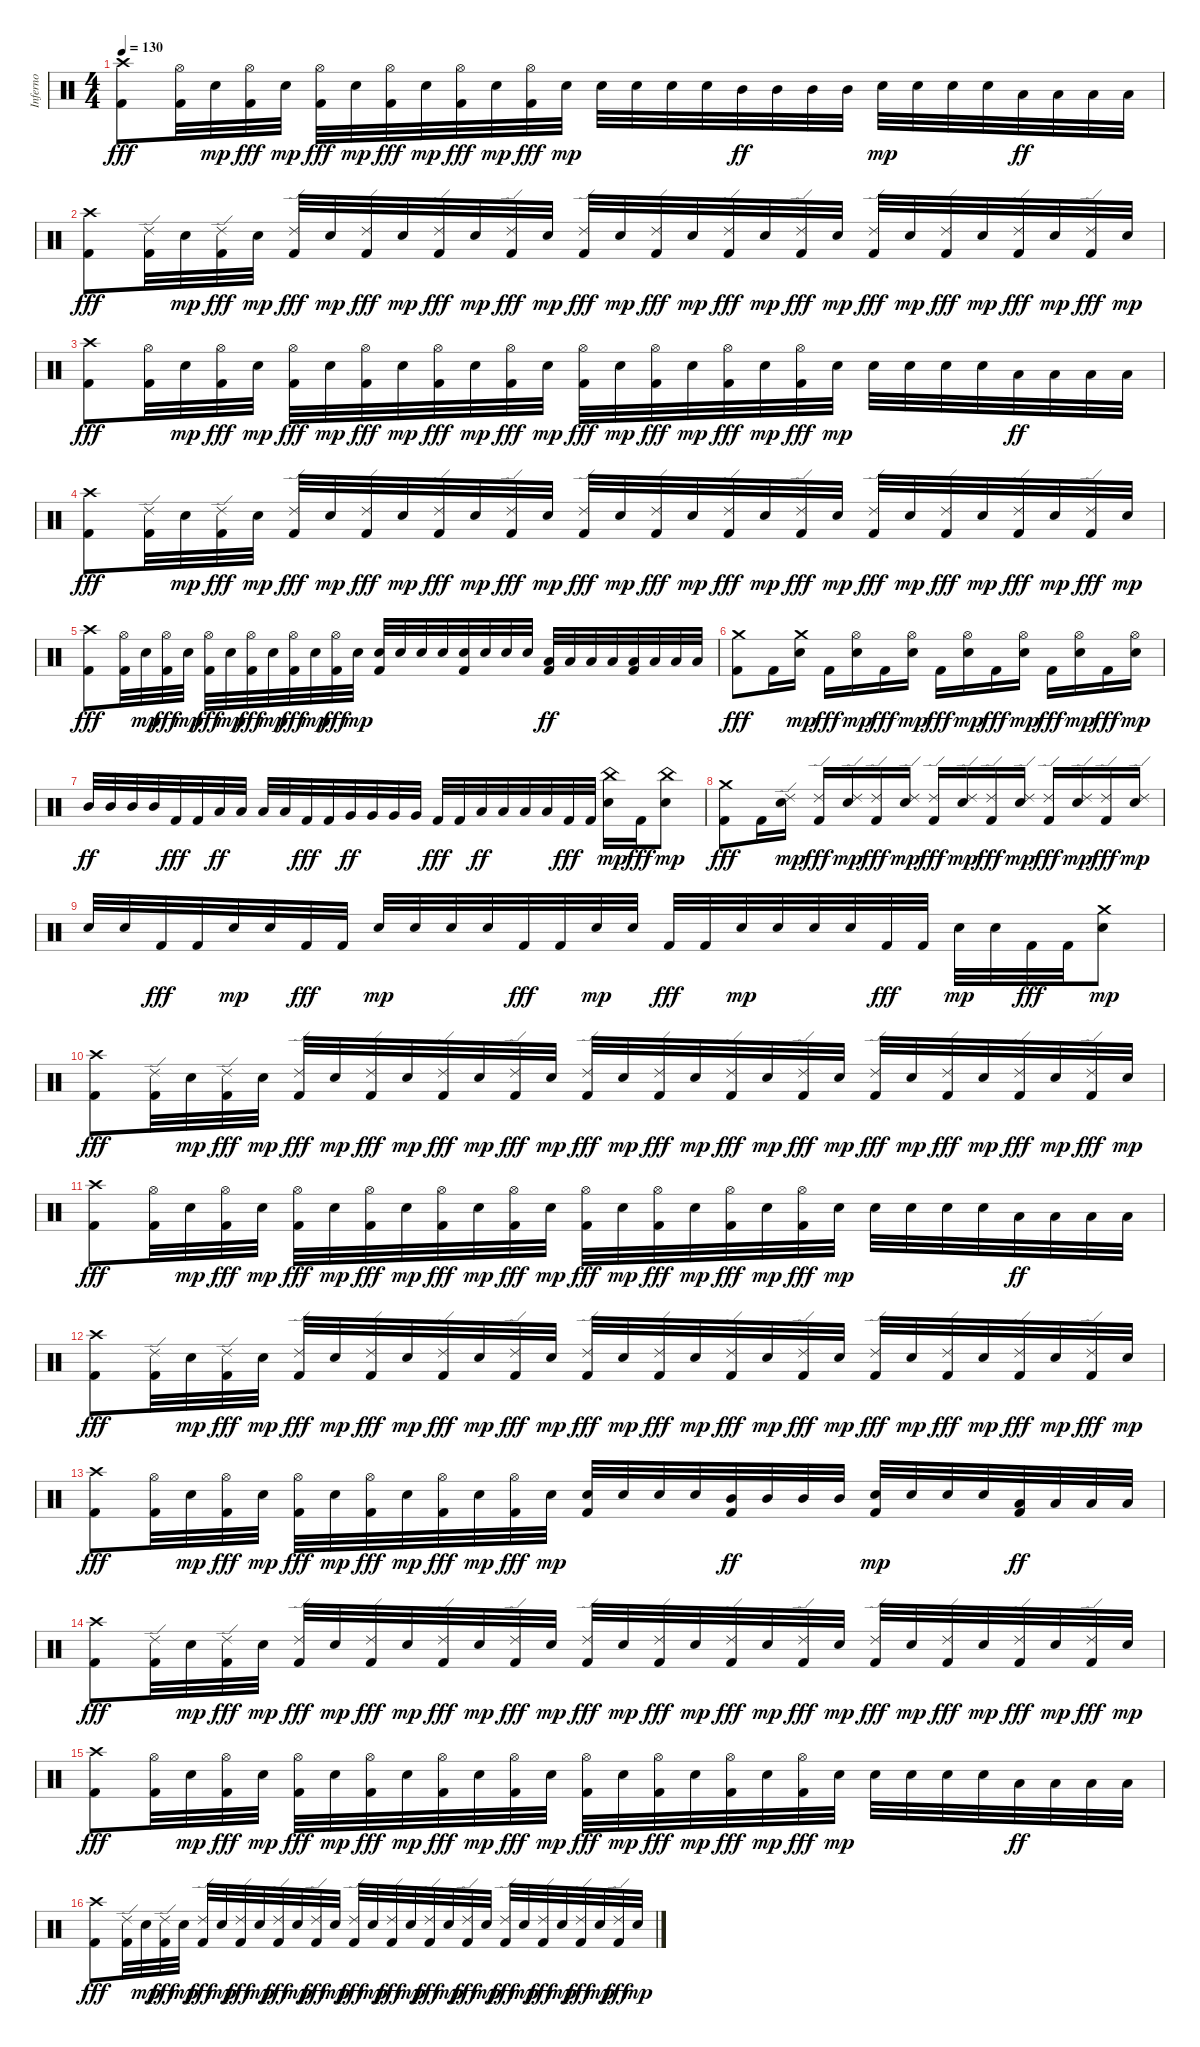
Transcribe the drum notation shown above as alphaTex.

\track ("Inferno" "Inferno") {instrument percussion}
\staff {score}
\articulation defaults
\ts (4 4)
\tempo 130
\clef neutral
\ks c
("Kick (hit) 2" "Crash high (hit)").8{dy fff} ("Kick (hit) 2" "Hi-Hat (open)").32 "Electric Snare (hit)".32{dy mp} ("Kick (hit) 2" "Hi-Hat (open)").32{dy fff} "Electric Snare (hit)".32{dy mp} ("Kick (hit) 2" "Hi-Hat (open)").32{dy fff} "Electric Snare (hit)".32{dy mp} ("Kick (hit) 2" "Hi-Hat (open)").32{dy fff} "Electric Snare (hit)".32{dy mp} ("Kick (hit) 2" "Hi-Hat (open)").32{dy fff} "Electric Snare (hit)".32{dy mp} ("Kick (hit) 2" "Hi-Hat (open)").32{dy fff} "Electric Snare (hit)".32{dy mp} "Electric Snare (hit)".32 "Electric Snare (hit)".32 "Electric Snare (hit)".32 "Electric Snare (hit)".32 "Mid Tom (hit)".32{dy ff} "Mid Tom (hit)".32 "Mid Tom (hit)".32 "Mid Tom (hit)".32 "Electric Snare (hit)".32{dy mp} "Electric Snare (hit)".32 "Electric Snare (hit)".32 "Electric Snare (hit)".32 "Low Tom (hit)".32{dy ff} "Low Tom (hit)".32 "Low Tom (hit)".32 "Low Tom (hit)".32 |
("Kick (hit) 2" "Crash high (hit)").8{dy fff} ("Kick (hit) 2" "Ride (edge) 2").32 "Electric Snare (hit)".32{dy mp} ("Kick (hit) 2" "Ride (edge) 2").32{dy fff} "Electric Snare (hit)".32{dy mp} ("Kick (hit) 2" "Ride (edge) 2").32{dy fff} "Electric Snare (hit)".32{dy mp} ("Kick (hit) 2" "Ride (edge) 2").32{dy fff} "Electric Snare (hit)".32{dy mp} ("Kick (hit) 2" "Ride (edge) 2").32{dy fff} "Electric Snare (hit)".32{dy mp} ("Kick (hit) 2" "Ride (edge) 2").32{dy fff} "Electric Snare (hit)".32{dy mp} ("Kick (hit) 2" "Ride (edge) 2").32{dy fff} "Electric Snare (hit)".32{dy mp} ("Kick (hit) 2" "Ride (edge) 2").32{dy fff} "Electric Snare (hit)".32{dy mp} ("Kick (hit) 2" "Ride (edge) 2").32{dy fff} "Electric Snare (hit)".32{dy mp} ("Kick (hit) 2" "Ride (edge) 2").32{dy fff} "Electric Snare (hit)".32{dy mp} ("Kick (hit) 2" "Ride (edge) 2").32{dy fff} "Electric Snare (hit)".32{dy mp} ("Kick (hit) 2" "Ride (edge) 2").32{dy fff} "Electric Snare (hit)".32{dy mp} ("Kick (hit) 2" "Ride (edge) 2").32{dy fff} "Electric Snare (hit)".32{dy mp} ("Kick (hit) 2" "Ride (edge) 2").32{dy fff} "Electric Snare (hit)".32{dy mp} |
("Kick (hit) 2" "Crash high (hit)").8{dy fff} ("Kick (hit) 2" "Hi-Hat (open)").32 "Electric Snare (hit)".32{dy mp} ("Kick (hit) 2" "Hi-Hat (open)").32{dy fff} "Electric Snare (hit)".32{dy mp} ("Kick (hit) 2" "Hi-Hat (open)").32{dy fff} "Electric Snare (hit)".32{dy mp} ("Kick (hit) 2" "Hi-Hat (open)").32{dy fff} "Electric Snare (hit)".32{dy mp} ("Kick (hit) 2" "Hi-Hat (open)").32{dy fff} "Electric Snare (hit)".32{dy mp} ("Kick (hit) 2" "Hi-Hat (open)").32{dy fff} "Electric Snare (hit)".32{dy mp} ("Kick (hit) 2" "Hi-Hat (open)").32{dy fff} "Electric Snare (hit)".32{dy mp} ("Kick (hit) 2" "Hi-Hat (open)").32{dy fff} "Electric Snare (hit)".32{dy mp} ("Kick (hit) 2" "Hi-Hat (open)").32{dy fff} "Electric Snare (hit)".32{dy mp} ("Kick (hit) 2" "Hi-Hat (open)").32{dy fff} "Electric Snare (hit)".32{dy mp} "Electric Snare (hit)".32 "Electric Snare (hit)".32 "Electric Snare (hit)".32 "Electric Snare (hit)".32 "Low Tom (hit)".32{dy ff} "Low Tom (hit)".32 "Low Tom (hit)".32 "Low Tom (hit)".32 |
("Kick (hit) 2" "Crash high (hit)").8{dy fff} ("Kick (hit) 2" "Ride (edge) 2").32 "Electric Snare (hit)".32{dy mp} ("Kick (hit) 2" "Ride (edge) 2").32{dy fff} "Electric Snare (hit)".32{dy mp} ("Kick (hit) 2" "Ride (edge) 2").32{dy fff} "Electric Snare (hit)".32{dy mp} ("Kick (hit) 2" "Ride (edge) 2").32{dy fff} "Electric Snare (hit)".32{dy mp} ("Kick (hit) 2" "Ride (edge) 2").32{dy fff} "Electric Snare (hit)".32{dy mp} ("Kick (hit) 2" "Ride (edge) 2").32{dy fff} "Electric Snare (hit)".32{dy mp} ("Kick (hit) 2" "Ride (edge) 2").32{dy fff} "Electric Snare (hit)".32{dy mp} ("Kick (hit) 2" "Ride (edge) 2").32{dy fff} "Electric Snare (hit)".32{dy mp} ("Kick (hit) 2" "Ride (edge) 2").32{dy fff} "Electric Snare (hit)".32{dy mp} ("Kick (hit) 2" "Ride (edge) 2").32{dy fff} "Electric Snare (hit)".32{dy mp} ("Kick (hit) 2" "Ride (edge) 2").32{dy fff} "Electric Snare (hit)".32{dy mp} ("Kick (hit) 2" "Ride (edge) 2").32{dy fff} "Electric Snare (hit)".32{dy mp} ("Kick (hit) 2" "Ride (edge) 2").32{dy fff} "Electric Snare (hit)".32{dy mp} ("Kick (hit) 2" "Ride (edge) 2").32{dy fff} "Electric Snare (hit)".32{dy mp} |
("Kick (hit) 2" "Crash high (hit)").8{dy fff} ("Kick (hit) 2" "Hi-Hat (open)").32 "Electric Snare (hit)".32{dy mp} ("Kick (hit) 2" "Hi-Hat (open)").32{dy fff} "Electric Snare (hit)".32{dy mp} ("Kick (hit) 2" "Hi-Hat (open)").32{dy fff} "Electric Snare (hit)".32{dy mp} ("Kick (hit) 2" "Hi-Hat (open)").32{dy fff} "Electric Snare (hit)".32{dy mp} ("Kick (hit) 2" "Hi-Hat (open)").32{dy fff} "Electric Snare (hit)".32{dy mp} ("Kick (hit) 2" "Hi-Hat (open)").32{dy fff} "Electric Snare (hit)".32{dy mp} ("Kick (hit) 2" "Electric Snare (hit)").32 "Electric Snare (hit)".32 "Electric Snare (hit)".32 "Electric Snare (hit)".32 ("Kick (hit) 2" "Electric Snare (hit)").32 "Electric Snare (hit)".32 "Electric Snare (hit)".32 "Electric Snare (hit)".32 ("Kick (hit) 2" "Low Tom (hit)").32{dy ff} "Low Tom (hit)".32 "Low Tom (hit)".32 "Low Tom (hit)".32 ("Kick (hit) 2" "Low Tom (hit)").32 "Low Tom (hit)".32 "Low Tom (hit)".32 "Low Tom (hit)".32 |
("Kick (hit) 2" "Crash medium (hit)").8{dy fff} "Kick (hit) 2".16 ("Crash medium (hit)" "Electric Snare (hit)").16{dy mp} "Kick (hit) 2".16{dy fff} ("Hi-Hat (open)" "Electric Snare (hit)").16{dy mp} "Kick (hit) 2".16{dy fff} ("Hi-Hat (open)" "Electric Snare (hit)").16{dy mp} "Kick (hit) 2".16{dy fff} ("Hi-Hat (open)" "Electric Snare (hit)").16{dy mp} "Kick (hit) 2".16{dy fff} ("Hi-Hat (open)" "Electric Snare (hit)").16{dy mp} "Kick (hit) 2".16{dy fff} ("Hi-Hat (open)" "Electric Snare (hit)").16{dy mp} "Kick (hit) 2".16{dy fff} ("Hi-Hat (open)" "Electric Snare (hit)").16{dy mp} |
"Mid Tom (hit)".32{dy ff} "Mid Tom (hit)".32 "Mid Tom (hit)".32 "Mid Tom (hit)".32 "Kick (hit) 2".32{dy fff} "Kick (hit) 2".32 "Low Tom (hit)".32{dy ff} "Low Tom (hit)".32 "Low Tom (hit)".32 "Low Tom (hit)".32 "Kick (hit) 2".32{dy fff} "Kick (hit) 2".32 "Very Low Tom (hit)".32{dy ff} "Very Low Tom (hit)".32 "Very Low Tom (hit)".32 "Very Low Tom (hit)".32 "Kick (hit) 2".32{dy fff} "Kick (hit) 2".32 "Low Floor Tom (hit)".32{dy ff} "Low Floor Tom (hit)".32 "Low Floor Tom (hit)".32 "Low Floor Tom (hit)".32 "Kick (hit) 2".32{dy fff} "Kick (hit) 2".32 ("China (hit)" "Electric Snare (hit)").16{dy mp} "Kick (hit) 2".16{dy fff} ("China (hit)" "Electric Snare (hit)").8{dy mp} |
("Kick (hit) 2" "Crash medium (hit)").8{dy fff} "Kick (hit) 2".16 ("Ride (edge) 2" "Electric Snare (hit)").16{dy mp} ("Kick (hit) 2" "Ride (edge) 2").16{dy fff} ("Ride (edge) 2" "Electric Snare (hit)").16{dy mp} ("Kick (hit) 2" "Ride (edge) 2").16{dy fff} ("Ride (edge) 2" "Electric Snare (hit)").16{dy mp} ("Kick (hit) 2" "Ride (edge) 2").16{dy fff} ("Ride (edge) 2" "Electric Snare (hit)").16{dy mp} ("Kick (hit) 2" "Ride (edge) 2").16{dy fff} ("Ride (edge) 2" "Electric Snare (hit)").16{dy mp} ("Kick (hit) 2" "Ride (edge) 2").16{dy fff} ("Ride (edge) 2" "Electric Snare (hit)").16{dy mp} ("Kick (hit) 2" "Ride (edge) 2").16{dy fff} ("Ride (edge) 2" "Electric Snare (hit)").16{dy mp} |
"Electric Snare (hit)".32 "Electric Snare (hit)".32 "Kick (hit) 2".32{dy fff} "Kick (hit) 2".32 "Electric Snare (hit)".32{dy mp} "Electric Snare (hit)".32 "Kick (hit) 2".32{dy fff} "Kick (hit) 2".32 "Electric Snare (hit)".32{dy mp} "Electric Snare (hit)".32 "Electric Snare (hit)".32 "Electric Snare (hit)".32 "Kick (hit) 2".32{dy fff} "Kick (hit) 2".32 "Electric Snare (hit)".32{dy mp} "Electric Snare (hit)".32 "Kick (hit) 2".32{dy fff} "Kick (hit) 2".32 "Electric Snare (hit)".32{dy mp} "Electric Snare (hit)".32 "Electric Snare (hit)".32 "Electric Snare (hit)".32 "Kick (hit) 2".32{dy fff} "Kick (hit) 2".32 "Electric Snare (hit)".32{dy mp} "Electric Snare (hit)".32 "Kick (hit) 2".32{dy fff} "Kick (hit) 2".32 ("Crash medium (hit)" "Electric Snare (hit)").8{dy mp} |
("Kick (hit) 2" "Crash high (hit)").8{dy fff} ("Kick (hit) 2" "Ride (edge) 2").32 "Electric Snare (hit)".32{dy mp} ("Kick (hit) 2" "Ride (edge) 2").32{dy fff} "Electric Snare (hit)".32{dy mp} ("Kick (hit) 2" "Ride (edge) 2").32{dy fff} "Electric Snare (hit)".32{dy mp} ("Kick (hit) 2" "Ride (edge) 2").32{dy fff} "Electric Snare (hit)".32{dy mp} ("Kick (hit) 2" "Ride (edge) 2").32{dy fff} "Electric Snare (hit)".32{dy mp} ("Kick (hit) 2" "Ride (edge) 2").32{dy fff} "Electric Snare (hit)".32{dy mp} ("Kick (hit) 2" "Ride (edge) 2").32{dy fff} "Electric Snare (hit)".32{dy mp} ("Kick (hit) 2" "Ride (edge) 2").32{dy fff} "Electric Snare (hit)".32{dy mp} ("Kick (hit) 2" "Ride (edge) 2").32{dy fff} "Electric Snare (hit)".32{dy mp} ("Kick (hit) 2" "Ride (edge) 2").32{dy fff} "Electric Snare (hit)".32{dy mp} ("Kick (hit) 2" "Ride (edge) 2").32{dy fff} "Electric Snare (hit)".32{dy mp} ("Kick (hit) 2" "Ride (edge) 2").32{dy fff} "Electric Snare (hit)".32{dy mp} ("Kick (hit) 2" "Ride (edge) 2").32{dy fff} "Electric Snare (hit)".32{dy mp} ("Kick (hit) 2" "Ride (edge) 2").32{dy fff} "Electric Snare (hit)".32{dy mp} |
("Kick (hit) 2" "Crash high (hit)").8{dy fff} ("Kick (hit) 2" "Hi-Hat (open)").32 "Electric Snare (hit)".32{dy mp} ("Kick (hit) 2" "Hi-Hat (open)").32{dy fff} "Electric Snare (hit)".32{dy mp} ("Kick (hit) 2" "Hi-Hat (open)").32{dy fff} "Electric Snare (hit)".32{dy mp} ("Kick (hit) 2" "Hi-Hat (open)").32{dy fff} "Electric Snare (hit)".32{dy mp} ("Kick (hit) 2" "Hi-Hat (open)").32{dy fff} "Electric Snare (hit)".32{dy mp} ("Kick (hit) 2" "Hi-Hat (open)").32{dy fff} "Electric Snare (hit)".32{dy mp} ("Kick (hit) 2" "Hi-Hat (open)").32{dy fff} "Electric Snare (hit)".32{dy mp} ("Kick (hit) 2" "Hi-Hat (open)").32{dy fff} "Electric Snare (hit)".32{dy mp} ("Kick (hit) 2" "Hi-Hat (open)").32{dy fff} "Electric Snare (hit)".32{dy mp} ("Kick (hit) 2" "Hi-Hat (open)").32{dy fff} "Electric Snare (hit)".32{dy mp} "Electric Snare (hit)".32 "Electric Snare (hit)".32 "Electric Snare (hit)".32 "Electric Snare (hit)".32 "Low Tom (hit)".32{dy ff} "Low Tom (hit)".32 "Low Tom (hit)".32 "Low Tom (hit)".32 |
("Kick (hit) 2" "Crash high (hit)").8{dy fff} ("Kick (hit) 2" "Ride (edge) 2").32 "Electric Snare (hit)".32{dy mp} ("Kick (hit) 2" "Ride (edge) 2").32{dy fff} "Electric Snare (hit)".32{dy mp} ("Kick (hit) 2" "Ride (edge) 2").32{dy fff} "Electric Snare (hit)".32{dy mp} ("Kick (hit) 2" "Ride (edge) 2").32{dy fff} "Electric Snare (hit)".32{dy mp} ("Kick (hit) 2" "Ride (edge) 2").32{dy fff} "Electric Snare (hit)".32{dy mp} ("Kick (hit) 2" "Ride (edge) 2").32{dy fff} "Electric Snare (hit)".32{dy mp} ("Kick (hit) 2" "Ride (edge) 2").32{dy fff} "Electric Snare (hit)".32{dy mp} ("Kick (hit) 2" "Ride (edge) 2").32{dy fff} "Electric Snare (hit)".32{dy mp} ("Kick (hit) 2" "Ride (edge) 2").32{dy fff} "Electric Snare (hit)".32{dy mp} ("Kick (hit) 2" "Ride (edge) 2").32{dy fff} "Electric Snare (hit)".32{dy mp} ("Kick (hit) 2" "Ride (edge) 2").32{dy fff} "Electric Snare (hit)".32{dy mp} ("Kick (hit) 2" "Ride (edge) 2").32{dy fff} "Electric Snare (hit)".32{dy mp} ("Kick (hit) 2" "Ride (edge) 2").32{dy fff} "Electric Snare (hit)".32{dy mp} ("Kick (hit) 2" "Ride (edge) 2").32{dy fff} "Electric Snare (hit)".32{dy mp} |
("Kick (hit) 2" "Crash high (hit)").8{dy fff} ("Kick (hit) 2" "Hi-Hat (open)").32 "Electric Snare (hit)".32{dy mp} ("Kick (hit) 2" "Hi-Hat (open)").32{dy fff} "Electric Snare (hit)".32{dy mp} ("Kick (hit) 2" "Hi-Hat (open)").32{dy fff} "Electric Snare (hit)".32{dy mp} ("Kick (hit) 2" "Hi-Hat (open)").32{dy fff} "Electric Snare (hit)".32{dy mp} ("Kick (hit) 2" "Hi-Hat (open)").32{dy fff} "Electric Snare (hit)".32{dy mp} ("Kick (hit) 2" "Hi-Hat (open)").32{dy fff} "Electric Snare (hit)".32{dy mp} ("Kick (hit) 2" "Electric Snare (hit)").32 "Electric Snare (hit)".32 "Electric Snare (hit)".32 "Electric Snare (hit)".32 ("Kick (hit) 2" "Mid Tom (hit)").32{dy ff} "Mid Tom (hit)".32 "Mid Tom (hit)".32 "Mid Tom (hit)".32 ("Kick (hit) 2" "Electric Snare (hit)").32{dy mp} "Electric Snare (hit)".32 "Electric Snare (hit)".32 "Electric Snare (hit)".32 ("Kick (hit) 2" "Low Tom (hit)").32{dy ff} "Low Tom (hit)".32 "Low Tom (hit)".32 "Low Tom (hit)".32 |
("Kick (hit) 2" "Crash high (hit)").8{dy fff} ("Kick (hit) 2" "Ride (edge) 2").32 "Electric Snare (hit)".32{dy mp} ("Kick (hit) 2" "Ride (edge) 2").32{dy fff} "Electric Snare (hit)".32{dy mp} ("Kick (hit) 2" "Ride (edge) 2").32{dy fff} "Electric Snare (hit)".32{dy mp} ("Kick (hit) 2" "Ride (edge) 2").32{dy fff} "Electric Snare (hit)".32{dy mp} ("Kick (hit) 2" "Ride (edge) 2").32{dy fff} "Electric Snare (hit)".32{dy mp} ("Kick (hit) 2" "Ride (edge) 2").32{dy fff} "Electric Snare (hit)".32{dy mp} ("Kick (hit) 2" "Ride (edge) 2").32{dy fff} "Electric Snare (hit)".32{dy mp} ("Kick (hit) 2" "Ride (edge) 2").32{dy fff} "Electric Snare (hit)".32{dy mp} ("Kick (hit) 2" "Ride (edge) 2").32{dy fff} "Electric Snare (hit)".32{dy mp} ("Kick (hit) 2" "Ride (edge) 2").32{dy fff} "Electric Snare (hit)".32{dy mp} ("Kick (hit) 2" "Ride (edge) 2").32{dy fff} "Electric Snare (hit)".32{dy mp} ("Kick (hit) 2" "Ride (edge) 2").32{dy fff} "Electric Snare (hit)".32{dy mp} ("Kick (hit) 2" "Ride (edge) 2").32{dy fff} "Electric Snare (hit)".32{dy mp} ("Kick (hit) 2" "Ride (edge) 2").32{dy fff} "Electric Snare (hit)".32{dy mp} |
("Kick (hit) 2" "Crash high (hit)").8{dy fff} ("Kick (hit) 2" "Hi-Hat (open)").32 "Electric Snare (hit)".32{dy mp} ("Kick (hit) 2" "Hi-Hat (open)").32{dy fff} "Electric Snare (hit)".32{dy mp} ("Kick (hit) 2" "Hi-Hat (open)").32{dy fff} "Electric Snare (hit)".32{dy mp} ("Kick (hit) 2" "Hi-Hat (open)").32{dy fff} "Electric Snare (hit)".32{dy mp} ("Kick (hit) 2" "Hi-Hat (open)").32{dy fff} "Electric Snare (hit)".32{dy mp} ("Kick (hit) 2" "Hi-Hat (open)").32{dy fff} "Electric Snare (hit)".32{dy mp} ("Kick (hit) 2" "Hi-Hat (open)").32{dy fff} "Electric Snare (hit)".32{dy mp} ("Kick (hit) 2" "Hi-Hat (open)").32{dy fff} "Electric Snare (hit)".32{dy mp} ("Kick (hit) 2" "Hi-Hat (open)").32{dy fff} "Electric Snare (hit)".32{dy mp} ("Kick (hit) 2" "Hi-Hat (open)").32{dy fff} "Electric Snare (hit)".32{dy mp} "Electric Snare (hit)".32 "Electric Snare (hit)".32 "Electric Snare (hit)".32 "Electric Snare (hit)".32 "Low Tom (hit)".32{dy ff} "Low Tom (hit)".32 "Low Tom (hit)".32 "Low Tom (hit)".32 |
("Kick (hit) 2" "Crash high (hit)").8{dy fff} ("Kick (hit) 2" "Ride (edge) 2").32 "Electric Snare (hit)".32{dy mp} ("Kick (hit) 2" "Ride (edge) 2").32{dy fff} "Electric Snare (hit)".32{dy mp} ("Kick (hit) 2" "Ride (edge) 2").32{dy fff} "Electric Snare (hit)".32{dy mp} ("Kick (hit) 2" "Ride (edge) 2").32{dy fff} "Electric Snare (hit)".32{dy mp} ("Kick (hit) 2" "Ride (edge) 2").32{dy fff} "Electric Snare (hit)".32{dy mp} ("Kick (hit) 2" "Ride (edge) 2").32{dy fff} "Electric Snare (hit)".32{dy mp} ("Kick (hit) 2" "Ride (edge) 2").32{dy fff} "Electric Snare (hit)".32{dy mp} ("Kick (hit) 2" "Ride (edge) 2").32{dy fff} "Electric Snare (hit)".32{dy mp} ("Kick (hit) 2" "Ride (edge) 2").32{dy fff} "Electric Snare (hit)".32{dy mp} ("Kick (hit) 2" "Ride (edge) 2").32{dy fff} "Electric Snare (hit)".32{dy mp} ("Kick (hit) 2" "Ride (edge) 2").32{dy fff} "Electric Snare (hit)".32{dy mp} ("Kick (hit) 2" "Ride (edge) 2").32{dy fff} "Electric Snare (hit)".32{dy mp} ("Kick (hit) 2" "Ride (edge) 2").32{dy fff} "Electric Snare (hit)".32{dy mp} ("Kick (hit) 2" "Ride (edge) 2").32{dy fff} "Electric Snare (hit)".32{dy mp}
